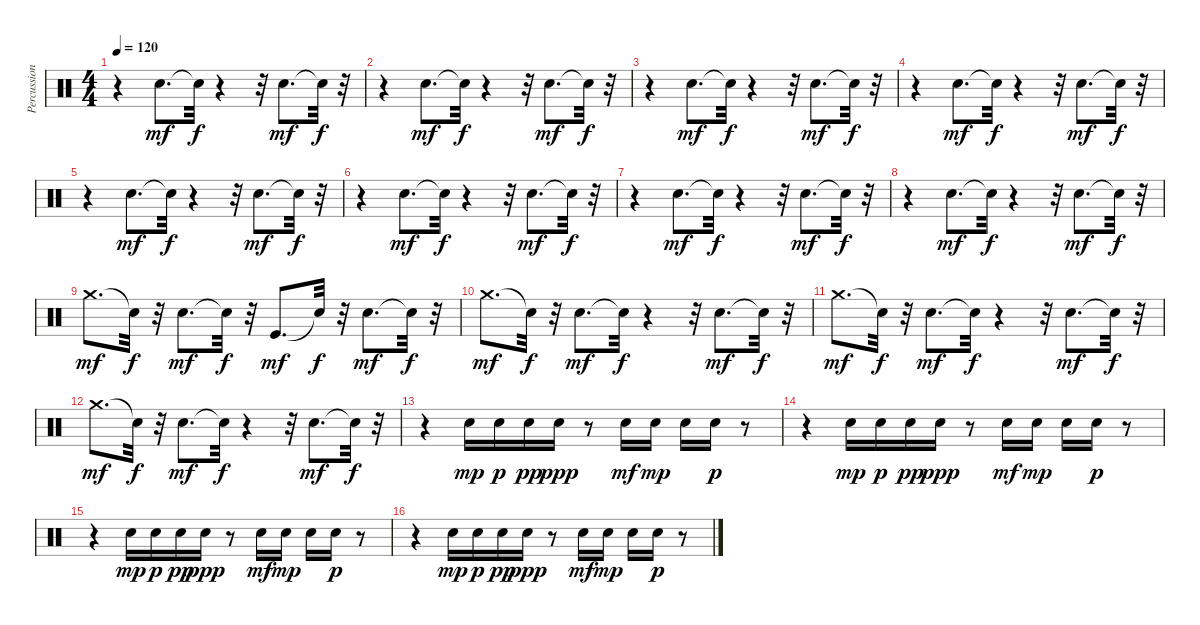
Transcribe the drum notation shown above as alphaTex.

\track ("Percussions" "Percussion") {instrument percussion}
\staff {score}
\articulation defaults
\ts (4 4)
\tempo 120
\clef neutral
\ks c
r.4{dy mf} "Electric Snare (hit)".8{d} "Snare (hit)"{t}.32{dy f} r.4 r.32 "Snare (hit) 2".8{d dy mf} "Snare (hit)"{t}.32{dy f} r.32 |
r.4 "Electric Snare (hit)".8{d dy mf} "Snare (hit)"{t}.32{dy f} r.4 r.32 "Snare (hit) 2".8{d dy mf} "Snare (hit)"{t}.32{dy f} r.32 |
r.4 "Electric Snare (hit)".8{d dy mf} "Snare (hit)"{t}.32{dy f} r.4 r.32 "Snare (hit) 2".8{d dy mf} "Snare (hit)"{t}.32{dy f} r.32 |
r.4 "Electric Snare (hit)".8{d dy mf} "Snare (hit)"{t}.32{dy f} r.4 r.32 "Snare (hit) 2".8{d dy mf} "Snare (hit)"{t}.32{dy f} r.32 |
r.4 "Electric Snare (hit)".8{d dy mf} "Snare (hit)"{t}.32{dy f} r.4 r.32 "Snare (hit) 2".8{d dy mf} "Snare (hit)"{t}.32{dy f} r.32 |
r.4 "Electric Snare (hit)".8{d dy mf} "Snare (hit)"{t}.32{dy f} r.4 r.32 "Snare (hit) 2".8{d dy mf} "Snare (hit)"{t}.32{dy f} r.32 |
r.4 "Electric Snare (hit)".8{d dy mf} "Snare (hit)"{t}.32{dy f} r.4 r.32 "Snare (hit) 2".8{d dy mf} "Snare (hit)"{t}.32{dy f} r.32 |
r.4 "Electric Snare (hit)".8{d dy mf} "Snare (hit)"{t}.32{dy f} r.4 r.32 "Snare (hit) 2".8{d dy mf} "Snare (hit)"{t}.32{dy f} r.32 |
"Crash medium (hit)".8{d dy mf} "Snare (hit)"{t}.32{dy f} r.32 "Electric Snare (hit)".8{d dy mf} "Snare (hit)"{t}.32{dy f} r.32 "Kick (hit)".8{d dy mf} "Snare (hit)"{t}.32{dy f} r.32 "Electric Snare (hit)".8{d dy mf} "Snare (hit)"{t}.32{dy f} r.32 |
"Crash medium (hit)".8{d dy mf} "Snare (hit)"{t}.32{dy f} r.32 "Electric Snare (hit)".8{d dy mf} "Snare (hit)"{t}.32{dy f} r.4 r.32 "Electric Snare (hit)".8{d dy mf} "Snare (hit)"{t}.32{dy f} r.32 |
"Crash medium (hit)".8{d dy mf} "Snare (hit)"{t}.32{dy f} r.32 "Electric Snare (hit)".8{d dy mf} "Snare (hit)"{t}.32{dy f} r.4 r.32 "Electric Snare (hit)".8{d dy mf} "Snare (hit)"{t}.32{dy f} r.32 |
"Crash medium (hit)".8{d dy mf} "Snare (hit)"{t}.32{dy f} r.32 "Electric Snare (hit)".8{d dy mf} "Snare (hit)"{t}.32{dy f} r.4 r.32 "Electric Snare (hit)".8{d dy mf} "Snare (hit)"{t}.32{dy f} r.32 |
r.4 "Electric Snare (hit)".16{dy mp} "Electric Snare (hit)".16{dy p} "Electric Snare (hit)".16{dy pp} "Electric Snare (hit)".16{dy ppp} r.8 "Electric Snare (hit)".16{dy mf} "Electric Snare (hit)".16{dy mp} "Electric Snare (hit)".16 "Electric Snare (hit)".16{dy p} r.8 |
r.4 "Electric Snare (hit)".16{dy mp} "Electric Snare (hit)".16{dy p} "Electric Snare (hit)".16{dy pp} "Electric Snare (hit)".16{dy ppp} r.8 "Electric Snare (hit)".16{dy mf} "Electric Snare (hit)".16{dy mp} "Electric Snare (hit)".16 "Electric Snare (hit)".16{dy p} r.8 |
r.4 "Electric Snare (hit)".16{dy mp} "Electric Snare (hit)".16{dy p} "Electric Snare (hit)".16{dy pp} "Electric Snare (hit)".16{dy ppp} r.8 "Electric Snare (hit)".16{dy mf} "Electric Snare (hit)".16{dy mp} "Electric Snare (hit)".16 "Electric Snare (hit)".16{dy p} r.8 |
r.4 "Electric Snare (hit)".16{dy mp} "Electric Snare (hit)".16{dy p} "Electric Snare (hit)".16{dy pp} "Electric Snare (hit)".16{dy ppp} r.8 "Electric Snare (hit)".16{dy mf} "Electric Snare (hit)".16{dy mp} "Electric Snare (hit)".16 "Electric Snare (hit)".16{dy p} r.8
